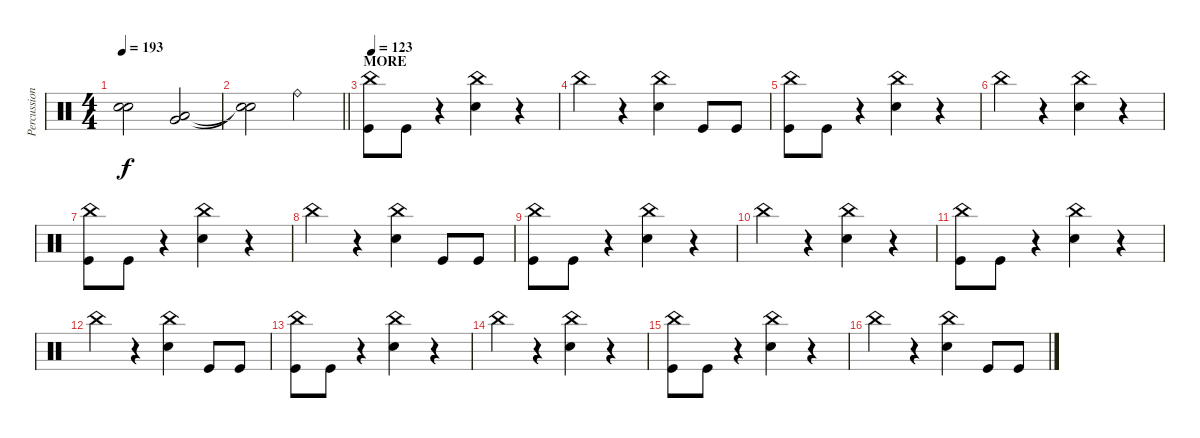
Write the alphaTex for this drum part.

\track ("Percussions" "Percussion") {instrument percussion}
\staff {score}
\articulation defaults
\ts (4 4)
\tempo 193
\clef neutral
\ks c
("Snare (hit)"{t} "Snare (hit)"{t}).2{dy f} ("Very Low Tom (hit)" "Low Floor Tom (hit)").2 |
\barLineRight lightlight
("Snare (hit)"{t} "Snare (hit)"{t}).2 "Ride (bell)".2 |
\section ("" "MORE")
\tempo 123
("China (hit)" "Kick (hit)").8 "Kick (hit)".8 r.4 ("China (hit)" "Electric Snare (hit)").4 r.4 |
"China (hit)".4 r.4 ("China (hit)" "Electric Snare (hit)").4 "Kick (hit)".8 "Kick (hit)".8 |
("China (hit)" "Kick (hit)").8 "Kick (hit)".8 r.4 ("China (hit)" "Electric Snare (hit)").4 r.4 |
"China (hit)".4 r.4 ("China (hit)" "Electric Snare (hit)").4 r.4 |
("China (hit)" "Kick (hit)").8 "Kick (hit)".8 r.4 ("China (hit)" "Electric Snare (hit)").4 r.4 |
"China (hit)".4 r.4 ("China (hit)" "Electric Snare (hit)").4 "Kick (hit)".8 "Kick (hit)".8 |
("China (hit)" "Kick (hit)").8 "Kick (hit)".8 r.4 ("China (hit)" "Electric Snare (hit)").4 r.4 |
"China (hit)".4 r.4 ("China (hit)" "Electric Snare (hit)").4 r.4 |
("China (hit)" "Kick (hit)").8 "Kick (hit)".8 r.4 ("China (hit)" "Electric Snare (hit)").4 r.4 |
"China (hit)".4 r.4 ("China (hit)" "Electric Snare (hit)").4 "Kick (hit)".8 "Kick (hit)".8 |
("China (hit)" "Kick (hit)").8 "Kick (hit)".8 r.4 ("China (hit)" "Electric Snare (hit)").4 r.4 |
"China (hit)".4 r.4 ("China (hit)" "Electric Snare (hit)").4 r.4 |
("China (hit)" "Kick (hit)").8 "Kick (hit)".8 r.4 ("China (hit)" "Electric Snare (hit)").4 r.4 |
"China (hit)".4 r.4 ("China (hit)" "Electric Snare (hit)").4 "Kick (hit)".8 "Kick (hit)".8
